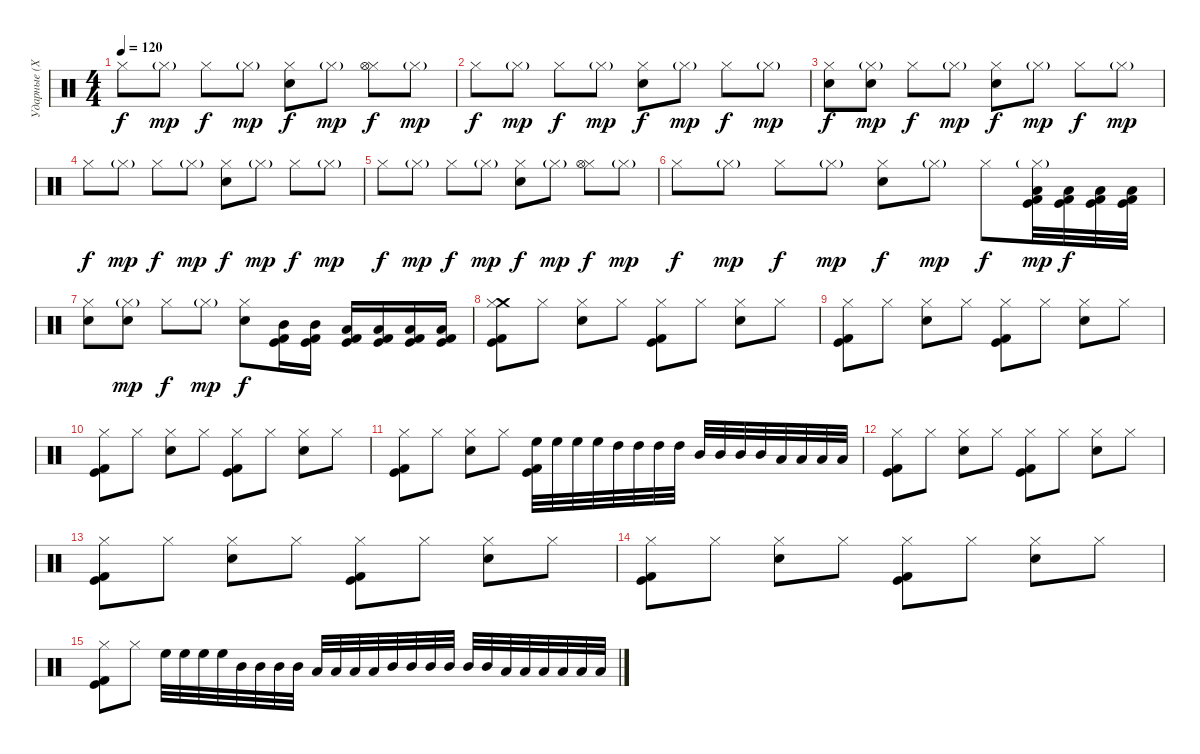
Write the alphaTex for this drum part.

\track ("Ударные (Хеллхаммер)" "Ударные (Х") {instrument percussion}
\staff {score}
\articulation defaults
\ts (4 4)
\tempo 120
\clef neutral
\ks c "Hi-Hat (closed)".8{dy f} "Hi-Hat (closed)"{g}.8{dy mp} "Hi-Hat (closed)".8{dy f} "Hi-Hat (closed)"{g}.8{dy mp}
("Hi-Hat (closed)" "Electric Snare (hit)").8{dy f} "Hi-Hat (closed)"{g}.8{dy mp} ("Hi-Hat (closed)" "Hi-Hat (open)").8{dy f} "Hi-Hat (closed)"{g}.8{dy mp} |
"Hi-Hat (closed)".8{dy f} "Hi-Hat (closed)"{g}.8{dy mp} "Hi-Hat (closed)".8{dy f} "Hi-Hat (closed)"{g}.8{dy mp} ("Hi-Hat (closed)" "Electric Snare (hit)").8{dy f} "Hi-Hat (closed)"{g}.8{dy mp} "Hi-Hat (closed)".8{dy f} "Hi-Hat (closed)"{g}.8{dy mp} |
("Hi-Hat (closed)" "Electric Snare (hit)").8{dy f} ("Hi-Hat (closed)"{g} "Electric Snare (hit)").8{dy mp} "Hi-Hat (closed)".8{dy f} "Hi-Hat (closed)"{g}.8{dy mp} ("Hi-Hat (closed)" "Electric Snare (hit)").8{dy f} "Hi-Hat (closed)"{g}.8{dy mp} "Hi-Hat (closed)".8{dy f} "Hi-Hat (closed)"{g}.8{dy mp} |
"Hi-Hat (closed)".8{dy f} "Hi-Hat (closed)"{g}.8{dy mp} "Hi-Hat (closed)".8{dy f} "Hi-Hat (closed)"{g}.8{dy mp} ("Hi-Hat (closed)" "Electric Snare (hit)").8{dy f} "Hi-Hat (closed)"{g}.8{dy mp} "Hi-Hat (closed)".8{dy f} "Hi-Hat (closed)"{g}.8{dy mp} |
"Hi-Hat (closed)".8{dy f} "Hi-Hat (closed)"{g}.8{dy mp} "Hi-Hat (closed)".8{dy f} "Hi-Hat (closed)"{g}.8{dy mp} ("Hi-Hat (closed)" "Electric Snare (hit)").8{dy f} "Hi-Hat (closed)"{g}.8{dy mp} ("Hi-Hat (closed)" "Hi-Hat (open)").8{dy f} "Hi-Hat (closed)"{g}.8{dy mp} |
"Hi-Hat (closed)".8{dy f} "Hi-Hat (closed)"{g}.8{dy mp} "Hi-Hat (closed)".8{dy f} "Hi-Hat (closed)"{g}.8{dy mp} ("Hi-Hat (closed)" "Electric Snare (hit)").8{dy f} "Hi-Hat (closed)"{g}.8{dy mp} "Hi-Hat (closed)".8{dy f} ("Hi-Hat (closed)"{g} "Low Tom (hit)" "Kick (hit) 2" "Kick (hit)").32{dy mp} ("Low Tom (hit)" "Kick (hit) 2" "Kick (hit)").32{dy f} ("Low Tom (hit)" "Kick (hit) 2" "Kick (hit)").32 ("Low Tom (hit)" "Kick (hit) 2" "Kick (hit)").32 |
("Hi-Hat (closed)" "Electric Snare (hit)").8 ("Hi-Hat (closed)"{g} "Electric Snare (hit)").8{dy mp} "Hi-Hat (closed)".8{dy f} "Hi-Hat (closed)"{g}.8{dy mp} ("Hi-Hat (closed)" "Electric Snare (hit)").8{dy f} ("Mid Tom (hit)" "Kick (hit) 2" "Kick (hit)").16 ("Mid Tom (hit)" "Kick (hit) 2" "Kick (hit)").16 ("Low Tom (hit)" "Kick (hit) 2" "Kick (hit)").16 ("Low Tom (hit)" "Kick (hit) 2" "Kick (hit)").16 ("Low Tom (hit)" "Kick (hit) 2" "Kick (hit)").16 ("Low Tom (hit)" "Kick (hit) 2" "Kick (hit)").16 |
("Crash medium (hit)" "Hi-Hat (closed)" "Kick (hit) 2" "Kick (hit)").8 "Hi-Hat (closed)".8 ("Hi-Hat (closed)" "Electric Snare (hit)").8 "Hi-Hat (closed)".8 ("Hi-Hat (closed)" "Kick (hit) 2" "Kick (hit)").8 "Hi-Hat (closed)".8 ("Hi-Hat (closed)" "Electric Snare (hit)").8 "Hi-Hat (closed)".8 |
("Hi-Hat (closed)" "Kick (hit) 2" "Kick (hit)").8 "Hi-Hat (closed)".8 ("Hi-Hat (closed)" "Electric Snare (hit)").8 "Hi-Hat (closed)".8 ("Hi-Hat (closed)" "Kick (hit) 2" "Kick (hit)").8 "Hi-Hat (closed)".8 ("Hi-Hat (closed)" "Electric Snare (hit)").8 "Hi-Hat (closed)".8 |
("Hi-Hat (closed)" "Kick (hit) 2" "Kick (hit)").8 "Hi-Hat (closed)".8 ("Hi-Hat (closed)" "Electric Snare (hit)").8 "Hi-Hat (closed)".8 ("Hi-Hat (closed)" "Kick (hit) 2" "Kick (hit)").8 "Hi-Hat (closed)".8 ("Hi-Hat (closed)" "Electric Snare (hit)").8 "Hi-Hat (closed)".8 |
("Hi-Hat (closed)" "Kick (hit) 2" "Kick (hit)").8 "Hi-Hat (closed)".8 ("Hi-Hat (closed)" "Electric Snare (hit)").8 "Hi-Hat (closed)".8 ("High Floor Tom (hit)" "Kick (hit) 2" "Kick (hit)").32 "High Floor Tom (hit)".32 "High Floor Tom (hit)".32 "High Floor Tom (hit)".32 "High Tom (hit)".32 "High Tom (hit)".32 "High Tom (hit)".32 "High Tom (hit)".32 "Mid Tom (hit)".32 "Mid Tom (hit)".32 "Mid Tom (hit)".32 "Mid Tom (hit)".32 "Low Tom (hit)".32 "Low Tom (hit)".32 "Low Tom (hit)".32 "Low Tom (hit)".32 |
("Hi-Hat (closed)" "Kick (hit) 2" "Kick (hit)").8 "Hi-Hat (closed)".8 ("Hi-Hat (closed)" "Electric Snare (hit)").8 "Hi-Hat (closed)".8 ("Hi-Hat (closed)" "Kick (hit) 2" "Kick (hit)").8 "Hi-Hat (closed)".8 ("Hi-Hat (closed)" "Electric Snare (hit)").8 "Hi-Hat (closed)".8 |
("Hi-Hat (closed)" "Kick (hit) 2" "Kick (hit)").8 "Hi-Hat (closed)".8 ("Hi-Hat (closed)" "Electric Snare (hit)").8 "Hi-Hat (closed)".8 ("Hi-Hat (closed)" "Kick (hit) 2" "Kick (hit)").8 "Hi-Hat (closed)".8 ("Hi-Hat (closed)" "Electric Snare (hit)").8 "Hi-Hat (closed)".8 |
("Hi-Hat (closed)" "Kick (hit) 2" "Kick (hit)").8 "Hi-Hat (closed)".8 ("Hi-Hat (closed)" "Electric Snare (hit)").8 "Hi-Hat (closed)".8 ("Hi-Hat (closed)" "Kick (hit) 2" "Kick (hit)").8 "Hi-Hat (closed)".8 ("Hi-Hat (closed)" "Electric Snare (hit)").8 "Hi-Hat (closed)".8 |
("Hi-Hat (closed)" "Kick (hit) 2" "Kick (hit)").8 "Hi-Hat (closed)".8 "High Floor Tom (hit)".32 "High Floor Tom (hit)".32 "High Floor Tom (hit)".32 "High Floor Tom (hit)".32 "Mid Tom (hit)".32 "Mid Tom (hit)".32 "Mid Tom (hit)".32 "Mid Tom (hit)".32 "Low Tom (hit)".32 "Low Tom (hit)".32 "Low Tom (hit)".32 "Low Tom (hit)".32 "Mid Tom (hit)".32 "Mid Tom (hit)".32 "Mid Tom (hit)".32 "Mid Tom (hit)".32 "Mid Tom (hit)".32 "Mid Tom (hit)".32 "Low Tom (hit)".32 "Low Tom (hit)".32 "Low Tom (hit)".32 "Low Tom (hit)".32 "Low Tom (hit)".32 "Low Tom (hit)".32
